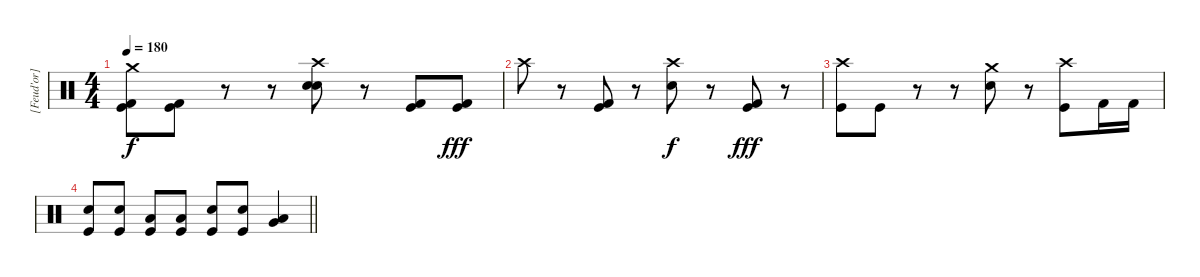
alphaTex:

\track ("[Feud'or] - Drums" "[Feud'or] ") {instrument percussion}
\staff {score}
\articulation defaults
\ts (4 4)
\tempo 180
\clef neutral
\ks c
("Crash medium (hit)" "Kick (hit)" "Kick (hit) 2").8{dy f} ("Kick (hit)" "Kick (hit) 2").8 r.8 r.8 ("Crash high (hit)" "Snare (hit) 2" "Electric Snare (hit)").8 r.8 ("Kick (hit)" "Kick (hit) 2").8 ("Kick (hit) 2" "Kick (hit)").8{dy fff} |
"Crash high (hit)".8 r.8 ("Kick (hit)" "Kick (hit) 2").8 r.8 ("Crash high (hit)" "Snare (hit) 2").8{dy f} r.8 ("Kick (hit) 2" "Kick (hit)").8{dy fff} r.8 |
("Crash high (hit)" "Kick (hit)").8 "Kick (hit)".8 r.8 r.8 ("Crash medium (hit)" "Snare (hit) 2").8 r.8 ("Crash high (hit)" "Kick (hit)").8 "Kick (hit) 2".16 "Kick (hit) 2".16 |
\barLineRight lightlight
("Kick (hit)" "Electric Snare (hit)").8 ("Kick (hit)" "Electric Snare (hit)").8 ("Kick (hit)" "Low Tom (hit)").8 ("Kick (hit)" "Low Floor Tom (hit)").8 ("Kick (hit)" "Electric Snare (hit)").8 ("Kick (hit)" "Electric Snare (hit)").8 ("Very Low Tom (hit)" "Low Floor Tom (hit)").4
